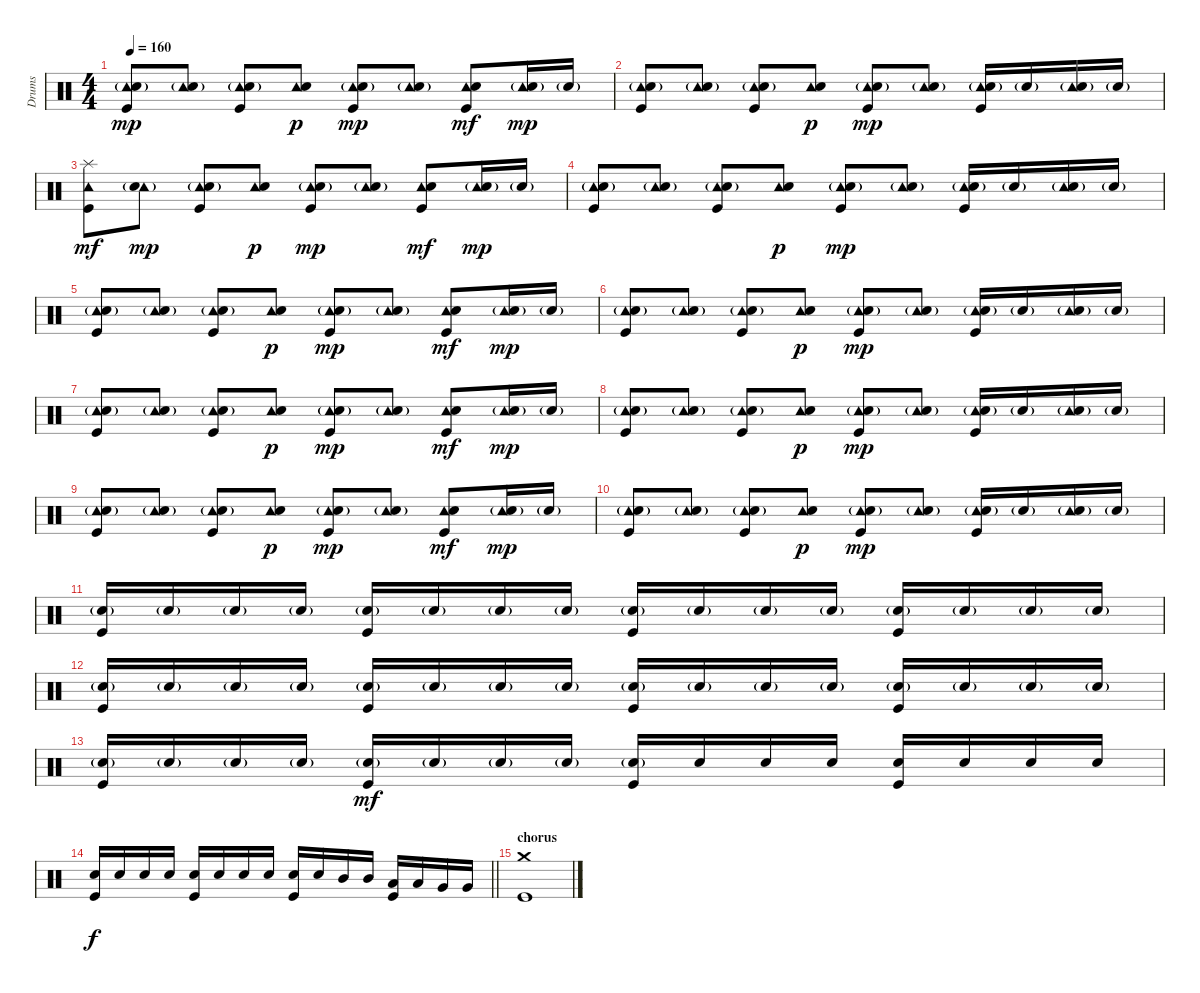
\track ("Drums" "Drums") {instrument percussion}
\staff {score}
\articulation defaults
\ts (4 4)
\tempo 160
\clef neutral
\ks c
("Tambourine (hit)" "Electric Snare (hit)"{g} "Kick (hit)").8{dy mp} ("Tambourine (hit)" "Electric Snare (hit)"{g}).8 ("Tambourine (hit)" "Electric Snare (hit)"{g} "Kick (hit)").8 ("Tambourine (hit)" "Electric Snare (hit)").8{dy p} ("Tambourine (hit)" "Electric Snare (hit)"{g} "Kick (hit)").8{dy mp} ("Tambourine (hit)" "Electric Snare (hit)"{g}).8 ("Tambourine (hit)" "Electric Snare (hit)" "Kick (hit)").8{dy mf} ("Tambourine (hit)" "Electric Snare (hit)"{g}).16{dy mp} "Electric Snare (hit)"{g}.16 |
("Tambourine (hit)" "Electric Snare (hit)"{g} "Kick (hit)").8 ("Tambourine (hit)" "Electric Snare (hit)"{g}).8 ("Tambourine (hit)" "Electric Snare (hit)"{g} "Kick (hit)").8 ("Tambourine (hit)" "Electric Snare (hit)").8{dy p} ("Tambourine (hit)" "Electric Snare (hit)"{g} "Kick (hit)").8{dy mp} ("Tambourine (hit)" "Electric Snare (hit)"{g}).8 ("Tambourine (hit)" "Electric Snare (hit)"{g} "Kick (hit)").16 "Electric Snare (hit)"{g}.16 ("Tambourine (hit)" "Electric Snare (hit)"{g}).16 "Electric Snare (hit)"{g}.16 |
("Tambourine (hit)" "Splash (hit)" "Kick (hit)").8{dy mf} ("Tambourine (hit)" "Electric Snare (hit)"{g}).8{dy mp} ("Tambourine (hit)" "Electric Snare (hit)"{g} "Kick (hit)").8 ("Tambourine (hit)" "Electric Snare (hit)").8{dy p} ("Tambourine (hit)" "Electric Snare (hit)"{g} "Kick (hit)").8{dy mp} ("Tambourine (hit)" "Electric Snare (hit)"{g}).8 ("Tambourine (hit)" "Electric Snare (hit)" "Kick (hit)").8{dy mf} ("Tambourine (hit)" "Electric Snare (hit)"{g}).16{dy mp} "Electric Snare (hit)"{g}.16 |
("Tambourine (hit)" "Electric Snare (hit)"{g} "Kick (hit)").8 ("Tambourine (hit)" "Electric Snare (hit)"{g}).8 ("Tambourine (hit)" "Electric Snare (hit)"{g} "Kick (hit)").8 ("Tambourine (hit)" "Electric Snare (hit)").8{dy p} ("Tambourine (hit)" "Electric Snare (hit)"{g} "Kick (hit)").8{dy mp} ("Tambourine (hit)" "Electric Snare (hit)"{g}).8 ("Tambourine (hit)" "Electric Snare (hit)"{g} "Kick (hit)").16 "Electric Snare (hit)"{g}.16 ("Tambourine (hit)" "Electric Snare (hit)"{g}).16 "Electric Snare (hit)"{g}.16 |
("Tambourine (hit)" "Electric Snare (hit)"{g} "Kick (hit)").8 ("Tambourine (hit)" "Electric Snare (hit)"{g}).8 ("Tambourine (hit)" "Electric Snare (hit)"{g} "Kick (hit)").8 ("Tambourine (hit)" "Electric Snare (hit)").8{dy p} ("Tambourine (hit)" "Electric Snare (hit)"{g} "Kick (hit)").8{dy mp} ("Tambourine (hit)" "Electric Snare (hit)"{g}).8 ("Tambourine (hit)" "Electric Snare (hit)" "Kick (hit)").8{dy mf} ("Tambourine (hit)" "Electric Snare (hit)"{g}).16{dy mp} "Electric Snare (hit)"{g}.16 |
("Tambourine (hit)" "Electric Snare (hit)"{g} "Kick (hit)").8 ("Tambourine (hit)" "Electric Snare (hit)"{g}).8 ("Tambourine (hit)" "Electric Snare (hit)"{g} "Kick (hit)").8 ("Tambourine (hit)" "Electric Snare (hit)").8{dy p} ("Tambourine (hit)" "Electric Snare (hit)"{g} "Kick (hit)").8{dy mp} ("Tambourine (hit)" "Electric Snare (hit)"{g}).8 ("Tambourine (hit)" "Electric Snare (hit)"{g} "Kick (hit)").16 "Electric Snare (hit)"{g}.16 ("Tambourine (hit)" "Electric Snare (hit)"{g}).16 "Electric Snare (hit)"{g}.16 |
("Tambourine (hit)" "Electric Snare (hit)"{g} "Kick (hit)").8 ("Tambourine (hit)" "Electric Snare (hit)"{g}).8 ("Tambourine (hit)" "Electric Snare (hit)"{g} "Kick (hit)").8 ("Tambourine (hit)" "Electric Snare (hit)").8{dy p} ("Tambourine (hit)" "Electric Snare (hit)"{g} "Kick (hit)").8{dy mp} ("Tambourine (hit)" "Electric Snare (hit)"{g}).8 ("Tambourine (hit)" "Electric Snare (hit)" "Kick (hit)").8{dy mf} ("Tambourine (hit)" "Electric Snare (hit)"{g}).16{dy mp} "Electric Snare (hit)"{g}.16 |
("Tambourine (hit)" "Electric Snare (hit)"{g} "Kick (hit)").8 ("Tambourine (hit)" "Electric Snare (hit)"{g}).8 ("Tambourine (hit)" "Electric Snare (hit)"{g} "Kick (hit)").8 ("Tambourine (hit)" "Electric Snare (hit)").8{dy p} ("Tambourine (hit)" "Electric Snare (hit)"{g} "Kick (hit)").8{dy mp} ("Tambourine (hit)" "Electric Snare (hit)"{g}).8 ("Tambourine (hit)" "Electric Snare (hit)"{g} "Kick (hit)").16 "Electric Snare (hit)"{g}.16 ("Tambourine (hit)" "Electric Snare (hit)"{g}).16 "Electric Snare (hit)"{g}.16 |
("Tambourine (hit)" "Electric Snare (hit)"{g} "Kick (hit)").8 ("Tambourine (hit)" "Electric Snare (hit)"{g}).8 ("Tambourine (hit)" "Electric Snare (hit)"{g} "Kick (hit)").8 ("Tambourine (hit)" "Electric Snare (hit)").8{dy p} ("Tambourine (hit)" "Electric Snare (hit)"{g} "Kick (hit)").8{dy mp} ("Tambourine (hit)" "Electric Snare (hit)"{g}).8 ("Tambourine (hit)" "Electric Snare (hit)" "Kick (hit)").8{dy mf} ("Tambourine (hit)" "Electric Snare (hit)"{g}).16{dy mp} "Electric Snare (hit)"{g}.16 |
("Tambourine (hit)" "Electric Snare (hit)"{g} "Kick (hit)").8 ("Tambourine (hit)" "Electric Snare (hit)"{g}).8 ("Tambourine (hit)" "Electric Snare (hit)"{g} "Kick (hit)").8 ("Tambourine (hit)" "Electric Snare (hit)").8{dy p} ("Tambourine (hit)" "Electric Snare (hit)"{g} "Kick (hit)").8{dy mp} ("Tambourine (hit)" "Electric Snare (hit)"{g}).8 ("Tambourine (hit)" "Electric Snare (hit)"{g} "Kick (hit)").16 "Electric Snare (hit)"{g}.16 ("Tambourine (hit)" "Electric Snare (hit)"{g}).16 "Electric Snare (hit)"{g}.16 |
("Electric Snare (hit)"{g} "Kick (hit)").16 "Electric Snare (hit)"{g}.16 "Electric Snare (hit)"{g}.16 "Electric Snare (hit)"{g}.16 ("Electric Snare (hit)"{g} "Kick (hit)").16 "Electric Snare (hit)"{g}.16 "Electric Snare (hit)"{g}.16 "Electric Snare (hit)"{g}.16 ("Electric Snare (hit)"{g} "Kick (hit)").16 "Electric Snare (hit)"{g}.16 "Electric Snare (hit)"{g}.16 "Electric Snare (hit)"{g}.16 ("Electric Snare (hit)"{g} "Kick (hit)").16 "Electric Snare (hit)"{g}.16 "Electric Snare (hit)"{g}.16 "Electric Snare (hit)"{g}.16 |
("Electric Snare (hit)"{g} "Kick (hit)").16 "Electric Snare (hit)"{g}.16 "Electric Snare (hit)"{g}.16 "Electric Snare (hit)"{g}.16 ("Electric Snare (hit)"{g} "Kick (hit)").16 "Electric Snare (hit)"{g}.16 "Electric Snare (hit)"{g}.16 "Electric Snare (hit)"{g}.16 ("Electric Snare (hit)"{g} "Kick (hit)").16 "Electric Snare (hit)"{g}.16 "Electric Snare (hit)"{g}.16 "Electric Snare (hit)"{g}.16 ("Electric Snare (hit)"{g} "Kick (hit)").16 "Electric Snare (hit)"{g}.16 "Electric Snare (hit)"{g}.16 "Electric Snare (hit)"{g}.16 |
("Electric Snare (hit)"{g} "Kick (hit)").16 "Electric Snare (hit)"{g}.16 "Electric Snare (hit)"{g}.16 "Electric Snare (hit)"{g}.16 ("Electric Snare (hit)"{g} "Kick (hit)").16{dy mf} "Electric Snare (hit)"{g}.16 "Electric Snare (hit)"{g}.16 "Electric Snare (hit)"{g}.16 ("Electric Snare (hit)"{g} "Kick (hit)").16 "Electric Snare (hit)".16 "Electric Snare (hit)".16 "Electric Snare (hit)".16 ("Electric Snare (hit)" "Kick (hit)").16 "Electric Snare (hit)".16 "Electric Snare (hit)".16 "Electric Snare (hit)".16 |
\barLineRight lightlight
("Electric Snare (hit)" "Kick (hit)").16{dy f} "Electric Snare (hit)".16 "Electric Snare (hit)".16 "Electric Snare (hit)".16 ("Electric Snare (hit)" "Kick (hit)").16 "Electric Snare (hit)".16 "Electric Snare (hit)".16 "Electric Snare (hit)".16 ("Electric Snare (hit)" "Kick (hit)").16 "Electric Snare (hit)".16 "Mid Tom (hit)".16 "Mid Tom (hit)".16 ("Low Tom (hit)" "Kick (hit)").16 "Low Tom (hit)".16 "Very Low Tom (hit)".16 "Very Low Tom (hit)".16 |
\section ("" "chorus")
("Crash medium (hit)" "Kick (hit)").1
